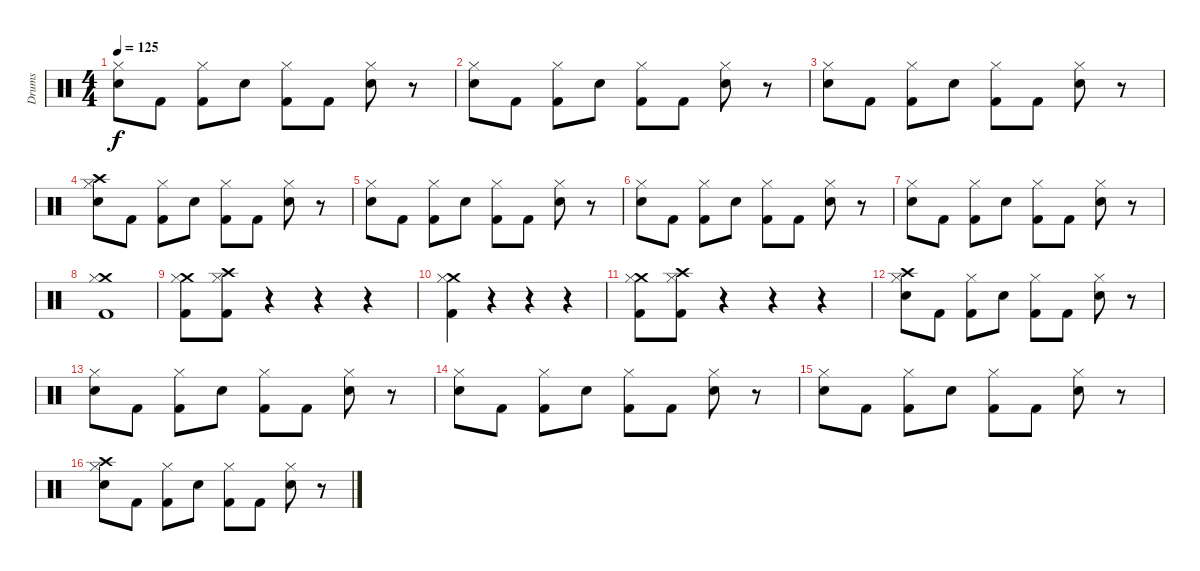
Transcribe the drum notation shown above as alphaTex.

\track ("Drums" "Drums") {instrument percussion}
\staff {score}
\articulation defaults
\ts (4 4)
\tempo 125
\clef neutral
\ks c
("Electric Snare (hit)" "Hi-Hat (closed)").8{dy f} "Kick (hit) 2".8 ("Kick (hit) 2" "Hi-Hat (closed)").8 "Electric Snare (hit)".8 ("Kick (hit) 2" "Hi-Hat (closed)").8 "Kick (hit) 2".8 ("Electric Snare (hit)" "Hi-Hat (closed)").8 r.8 |
("Electric Snare (hit)" "Hi-Hat (closed)").8 "Kick (hit) 2".8 ("Kick (hit) 2" "Hi-Hat (closed)").8 "Electric Snare (hit)".8 ("Kick (hit) 2" "Hi-Hat (closed)").8 "Kick (hit) 2".8 ("Electric Snare (hit)" "Hi-Hat (closed)").8 r.8 |
("Electric Snare (hit)" "Hi-Hat (closed)").8 "Kick (hit) 2".8 ("Kick (hit) 2" "Hi-Hat (closed)").8 "Electric Snare (hit)".8 ("Kick (hit) 2" "Hi-Hat (closed)").8 "Kick (hit) 2".8 ("Electric Snare (hit)" "Hi-Hat (closed)").8 r.8 |
("Electric Snare (hit)" "Crash high (hit)" "Hi-Hat (closed)").8 "Kick (hit) 2".8 ("Kick (hit) 2" "Hi-Hat (closed)").8 "Electric Snare (hit)".8 ("Kick (hit) 2" "Hi-Hat (closed)").8 "Kick (hit) 2".8 ("Electric Snare (hit)" "Hi-Hat (closed)").8 r.8 |
("Electric Snare (hit)" "Hi-Hat (closed)").8 "Kick (hit) 2".8 ("Kick (hit) 2" "Hi-Hat (closed)").8 "Electric Snare (hit)".8 ("Kick (hit) 2" "Hi-Hat (closed)").8 "Kick (hit) 2".8 ("Electric Snare (hit)" "Hi-Hat (closed)").8 r.8 |
("Electric Snare (hit)" "Hi-Hat (closed)").8 "Kick (hit) 2".8 ("Kick (hit) 2" "Hi-Hat (closed)").8 "Electric Snare (hit)".8 ("Kick (hit) 2" "Hi-Hat (closed)").8 "Kick (hit) 2".8 ("Electric Snare (hit)" "Hi-Hat (closed)").8 r.8 |
("Electric Snare (hit)" "Hi-Hat (closed)").8 "Kick (hit) 2".8 ("Kick (hit) 2" "Hi-Hat (closed)").8 "Electric Snare (hit)".8 ("Kick (hit) 2" "Hi-Hat (closed)").8 "Kick (hit) 2".8 ("Electric Snare (hit)" "Hi-Hat (closed)").8 r.8 |
("Kick (hit) 2" "Crash medium (hit)" "Hi-Hat (closed)").1 |
("Kick (hit) 2" "Crash medium (hit)" "Hi-Hat (closed)").8 ("Kick (hit) 2" "Crash high (hit)" "Hi-Hat (closed)").8 r.4 r.4 r.4 |
("Kick (hit) 2" "Crash medium (hit)" "Hi-Hat (closed)").4 r.4 r.4 r.4 |
("Kick (hit) 2" "Crash medium (hit)" "Hi-Hat (closed)").8 ("Kick (hit) 2" "Crash high (hit)" "Hi-Hat (closed)").8 r.4 r.4 r.4 |
("Electric Snare (hit)" "Crash high (hit)" "Hi-Hat (closed)").8 "Kick (hit) 2".8 ("Kick (hit) 2" "Hi-Hat (closed)").8 "Electric Snare (hit)".8 ("Kick (hit) 2" "Hi-Hat (closed)").8 "Kick (hit) 2".8 ("Electric Snare (hit)" "Hi-Hat (closed)").8 r.8 |
("Electric Snare (hit)" "Hi-Hat (closed)").8 "Kick (hit) 2".8 ("Kick (hit) 2" "Hi-Hat (closed)").8 "Electric Snare (hit)".8 ("Kick (hit) 2" "Hi-Hat (closed)").8 "Kick (hit) 2".8 ("Electric Snare (hit)" "Hi-Hat (closed)").8 r.8 |
("Electric Snare (hit)" "Hi-Hat (closed)").8 "Kick (hit) 2".8 ("Kick (hit) 2" "Hi-Hat (closed)").8 "Electric Snare (hit)".8 ("Kick (hit) 2" "Hi-Hat (closed)").8 "Kick (hit) 2".8 ("Electric Snare (hit)" "Hi-Hat (closed)").8 r.8 |
("Electric Snare (hit)" "Hi-Hat (closed)").8 "Kick (hit) 2".8 ("Kick (hit) 2" "Hi-Hat (closed)").8 "Electric Snare (hit)".8 ("Kick (hit) 2" "Hi-Hat (closed)").8 "Kick (hit) 2".8 ("Electric Snare (hit)" "Hi-Hat (closed)").8 r.8 |
("Electric Snare (hit)" "Crash high (hit)" "Hi-Hat (closed)").8 "Kick (hit) 2".8 ("Kick (hit) 2" "Hi-Hat (closed)").8 "Electric Snare (hit)".8 ("Kick (hit) 2" "Hi-Hat (closed)").8 "Kick (hit) 2".8 ("Electric Snare (hit)" "Hi-Hat (closed)").8 r.8
